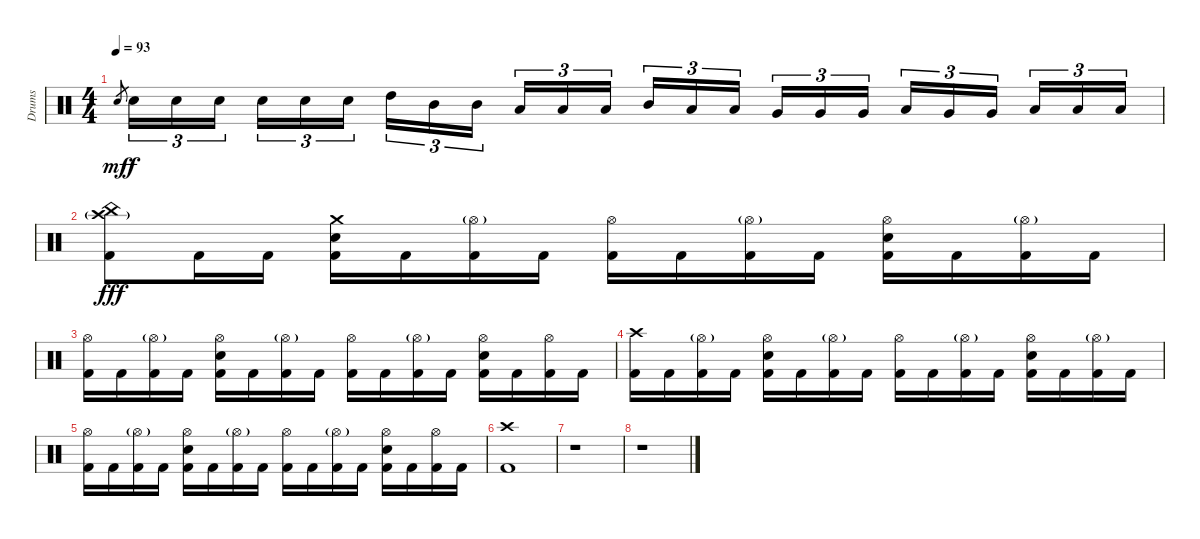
\track ("Drums" "Drums") {instrument percussion}
\staff {score}
\articulation defaults
\ts (4 4)
\tempo 93
\clef neutral
\ks c "Electric Snare (hit)".8{gr dy mf} "Electric Snare (hit)".16{tu (3 2) dy f} "Electric Snare (hit)".16{tu (3 2)} "Electric Snare (hit)".16{tu (3 2)} "Electric Snare (hit)".16{tu (3 2)} "Electric Snare (hit)".16{tu (3 2)} "Electric Snare (hit)".16{tu (3 2)} "High Tom (hit)".16{tu (3 2)} "Mid Tom (hit)".16{tu (3 2)} "Mid Tom (hit)".16{tu (3 2)} "Low Tom (hit)".16{tu (3 2)} "Low Tom (hit)".16{tu (3 2)} "Low Tom (hit)".16{tu (3 2)} "Mid Tom (hit)".16{tu (3 2)} "Low Tom (hit)".16{tu (3 2)} "Low Tom (hit)".16{tu (3 2)} "Very Low Tom (hit)".16{tu (3 2)} "Very Low Tom (hit)".16{tu (3 2)} "Very Low Tom (hit)".16{tu (3 2)} "Low Tom (hit)".16{tu (3 2)} "Very Low Tom (hit)".16{tu (3 2)} "Very Low Tom (hit)".16{tu (3 2)} "Low Floor Tom (hit)".16{tu (3 2)} "Low Floor Tom (hit)".16{tu (3 2)} "Low Floor Tom (hit)".16{tu (3 2)}
|
("China (hit)" "Crash high (hit)"{g} "Kick (hit) 2").8{dy fff} "Kick (hit) 2".16 "Kick (hit) 2".16 ("Crash medium (hit)" "Electric Snare (hit)" "Kick (hit) 2").16 "Kick (hit) 2".16 ("Hi-Hat (open)"{g} "Kick (hit) 2").16 "Kick (hit) 2".16 ("Hi-Hat (open)" "Kick (hit) 2").16 "Kick (hit) 2".16 ("Hi-Hat (open)"{g} "Kick (hit) 2").16 "Kick (hit) 2".16 ("Hi-Hat (open)" "Electric Snare (hit)" "Kick (hit) 2").16 "Kick (hit) 2".16 ("Hi-Hat (open)"{g} "Kick (hit) 2").16 "Kick (hit) 2".16 |
("Hi-Hat (open)" "Kick (hit) 2").16 "Kick (hit) 2".16 ("Hi-Hat (open)"{g} "Kick (hit) 2").16 "Kick (hit) 2".16 ("Hi-Hat (open)" "Electric Snare (hit)" "Kick (hit) 2").16 "Kick (hit) 2".16 ("Hi-Hat (open)"{g} "Kick (hit) 2").16 "Kick (hit) 2".16 ("Hi-Hat (open)" "Kick (hit) 2").16 "Kick (hit) 2".16 ("Hi-Hat (open)"{g} "Kick (hit) 2").16 "Kick (hit) 2".16 ("Hi-Hat (open)" "Electric Snare (hit)" "Kick (hit) 2").16 "Kick (hit) 2".16 ("Hi-Hat (open)" "Kick (hit) 2").16 "Kick (hit) 2".16 |
("Crash high (hit)" "Kick (hit) 2").16 "Kick (hit) 2".16 ("Hi-Hat (open)"{g} "Kick (hit) 2").16 "Kick (hit) 2".16 ("Hi-Hat (open)" "Electric Snare (hit)" "Kick (hit) 2").16 "Kick (hit) 2".16 ("Hi-Hat (open)"{g} "Kick (hit) 2").16 "Kick (hit) 2".16 ("Hi-Hat (open)" "Kick (hit) 2").16 "Kick (hit) 2".16 ("Hi-Hat (open)"{g} "Kick (hit) 2").16 "Kick (hit) 2".16 ("Hi-Hat (open)" "Electric Snare (hit)" "Kick (hit) 2").16 "Kick (hit) 2".16 ("Hi-Hat (open)"{g} "Kick (hit) 2").16 "Kick (hit) 2".16 |
("Hi-Hat (open)" "Kick (hit) 2").16 "Kick (hit) 2".16 ("Hi-Hat (open)"{g} "Kick (hit) 2").16 "Kick (hit) 2".16 ("Hi-Hat (open)" "Electric Snare (hit)" "Kick (hit) 2").16 "Kick (hit) 2".16 ("Hi-Hat (open)"{g} "Kick (hit) 2").16 "Kick (hit) 2".16 ("Hi-Hat (open)" "Kick (hit) 2").16 "Kick (hit) 2".16 ("Hi-Hat (open)"{g} "Kick (hit) 2").16 "Kick (hit) 2".16 ("Hi-Hat (open)" "Electric Snare (hit)" "Kick (hit) 2").16 "Kick (hit) 2".16 ("Hi-Hat (open)" "Kick (hit) 2").16 "Kick (hit) 2".16 |
("Crash high (hit)" "Kick (hit) 2").1 |
r.1 |
r.1
